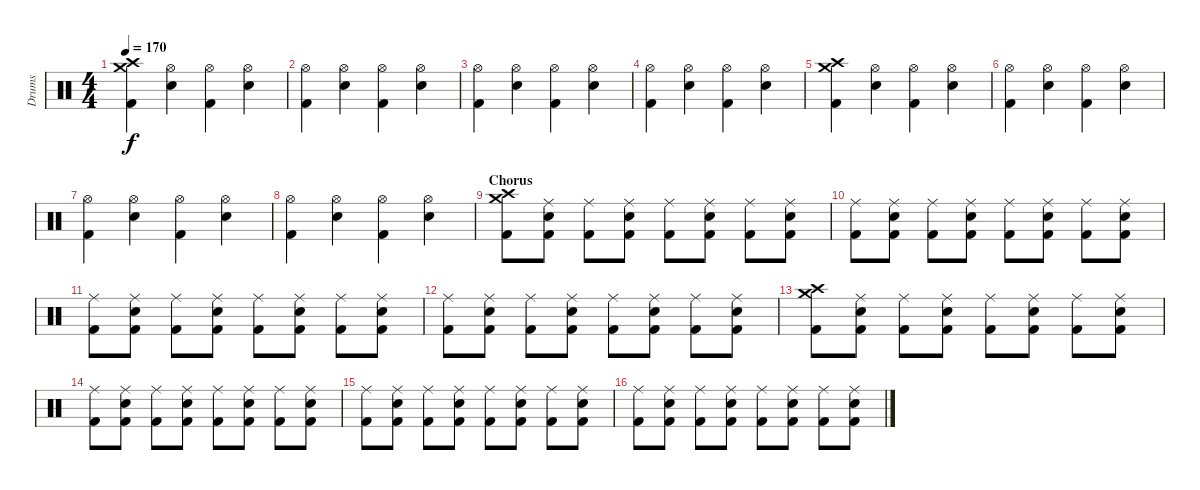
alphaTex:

\track ("Drums" "Drums") {instrument percussion}
\staff {score}
\articulation defaults
\ts (4 4)
\tempo 170
\clef neutral
\ks c
("Crash high (hit)" "Crash medium (hit)" "Kick (hit) 2").4{dy f} ("Hi-Hat (open)" "Snare (hit) 2").4 ("Hi-Hat (open)" "Kick (hit) 2").4 ("Hi-Hat (open)" "Snare (hit) 2").4 |
("Hi-Hat (open)" "Kick (hit) 2").4 ("Hi-Hat (open)" "Snare (hit) 2").4 ("Hi-Hat (open)" "Kick (hit) 2").4 ("Hi-Hat (open)" "Snare (hit) 2").4 |
("Hi-Hat (open)" "Kick (hit) 2").4 ("Hi-Hat (open)" "Snare (hit) 2").4 ("Hi-Hat (open)" "Kick (hit) 2").4 ("Hi-Hat (open)" "Snare (hit) 2").4 |
("Hi-Hat (open)" "Kick (hit) 2").4 ("Hi-Hat (open)" "Snare (hit) 2").4 ("Hi-Hat (open)" "Kick (hit) 2").4 ("Hi-Hat (open)" "Snare (hit) 2").4 |
("Crash high (hit)" "Crash medium (hit)" "Kick (hit) 2").4 ("Hi-Hat (open)" "Snare (hit) 2").4 ("Hi-Hat (open)" "Kick (hit) 2").4 ("Hi-Hat (open)" "Snare (hit) 2").4 |
("Hi-Hat (open)" "Kick (hit) 2").4 ("Hi-Hat (open)" "Snare (hit) 2").4 ("Hi-Hat (open)" "Kick (hit) 2").4 ("Hi-Hat (open)" "Snare (hit) 2").4 |
("Hi-Hat (open)" "Kick (hit) 2").4 ("Hi-Hat (open)" "Snare (hit) 2").4 ("Hi-Hat (open)" "Kick (hit) 2").4 ("Hi-Hat (open)" "Snare (hit) 2").4 |
("Hi-Hat (open)" "Kick (hit) 2").4 ("Hi-Hat (open)" "Snare (hit) 2").4 ("Hi-Hat (open)" "Kick (hit) 2").4 ("Hi-Hat (open)" "Snare (hit) 2").4 |
\section ("" "Chorus")
("Crash medium (hit)" "Crash high (hit)" "Kick (hit) 2").8 ("Ride (middle)" "Snare (hit) 2" "Kick (hit) 2").8 ("Ride (middle)" "Kick (hit) 2").8 ("Ride (middle)" "Snare (hit) 2" "Kick (hit) 2").8 ("Ride (middle)" "Kick (hit) 2").8 ("Ride (middle)" "Snare (hit) 2" "Kick (hit) 2").8 ("Ride (middle)" "Kick (hit) 2").8 ("Ride (middle)" "Snare (hit) 2" "Kick (hit) 2").8 |
("Ride (middle)" "Kick (hit) 2").8 ("Ride (middle)" "Snare (hit) 2" "Kick (hit) 2").8 ("Ride (middle)" "Kick (hit) 2").8 ("Ride (middle)" "Snare (hit) 2" "Kick (hit) 2").8 ("Ride (middle)" "Kick (hit) 2").8 ("Ride (middle)" "Snare (hit) 2" "Kick (hit) 2").8 ("Ride (middle)" "Kick (hit) 2").8 ("Ride (middle)" "Snare (hit) 2" "Kick (hit) 2").8 |
("Ride (middle)" "Kick (hit) 2").8 ("Ride (middle)" "Snare (hit) 2" "Kick (hit) 2").8 ("Ride (middle)" "Kick (hit) 2").8 ("Ride (middle)" "Snare (hit) 2" "Kick (hit) 2").8 ("Ride (middle)" "Kick (hit) 2").8 ("Ride (middle)" "Snare (hit) 2" "Kick (hit) 2").8 ("Ride (middle)" "Kick (hit) 2").8 ("Ride (middle)" "Snare (hit) 2" "Kick (hit) 2").8 |
("Ride (middle)" "Kick (hit) 2").8 ("Ride (middle)" "Snare (hit) 2" "Kick (hit) 2").8 ("Ride (middle)" "Kick (hit) 2").8 ("Ride (middle)" "Snare (hit) 2" "Kick (hit) 2").8 ("Ride (middle)" "Kick (hit) 2").8 ("Ride (middle)" "Snare (hit) 2" "Kick (hit) 2").8 ("Ride (middle)" "Kick (hit) 2").8 ("Ride (middle)" "Snare (hit) 2" "Kick (hit) 2").8 |
("Crash medium (hit)" "Crash high (hit)" "Kick (hit) 2").8 ("Ride (middle)" "Snare (hit) 2" "Kick (hit) 2").8 ("Ride (middle)" "Kick (hit) 2").8 ("Ride (middle)" "Snare (hit) 2" "Kick (hit) 2").8 ("Ride (middle)" "Kick (hit) 2").8 ("Ride (middle)" "Snare (hit) 2" "Kick (hit) 2").8 ("Ride (middle)" "Kick (hit) 2").8 ("Ride (middle)" "Snare (hit) 2" "Kick (hit) 2").8 |
("Ride (middle)" "Kick (hit) 2").8 ("Ride (middle)" "Snare (hit) 2" "Kick (hit) 2").8 ("Ride (middle)" "Kick (hit) 2").8 ("Ride (middle)" "Snare (hit) 2" "Kick (hit) 2").8 ("Ride (middle)" "Kick (hit) 2").8 ("Ride (middle)" "Snare (hit) 2" "Kick (hit) 2").8 ("Ride (middle)" "Kick (hit) 2").8 ("Ride (middle)" "Snare (hit) 2" "Kick (hit) 2").8 |
("Ride (middle)" "Kick (hit) 2").8 ("Ride (middle)" "Snare (hit) 2" "Kick (hit) 2").8 ("Ride (middle)" "Kick (hit) 2").8 ("Ride (middle)" "Snare (hit) 2" "Kick (hit) 2").8 ("Ride (middle)" "Kick (hit) 2").8 ("Ride (middle)" "Snare (hit) 2" "Kick (hit) 2").8 ("Ride (middle)" "Kick (hit) 2").8 ("Ride (middle)" "Snare (hit) 2" "Kick (hit) 2").8 |
("Ride (middle)" "Kick (hit) 2").8 ("Ride (middle)" "Snare (hit) 2" "Kick (hit) 2").8 ("Ride (middle)" "Kick (hit) 2").8 ("Ride (middle)" "Snare (hit) 2" "Kick (hit) 2").8 ("Ride (middle)" "Kick (hit) 2").8 ("Ride (middle)" "Snare (hit) 2" "Kick (hit) 2").8 ("Ride (middle)" "Kick (hit) 2").8 ("Ride (middle)" "Snare (hit) 2" "Kick (hit) 2").8
